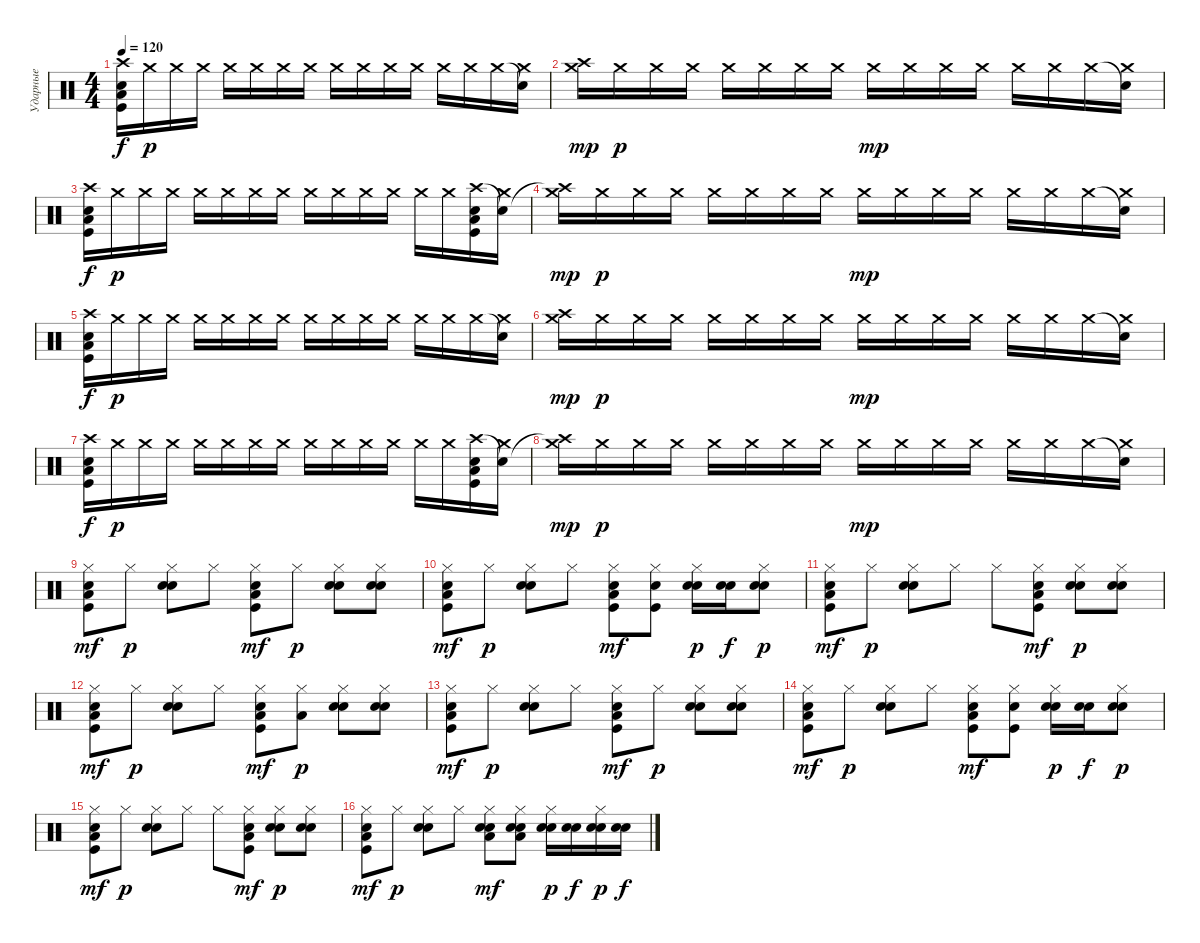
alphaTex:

\track ("Ударные" "Ударные") {instrument percussion}
\staff {score}
\articulation defaults
\ts (4 4)
\tempo 120
\clef neutral
\ks c
("Crash high (hit)" "Snare (hit) 2" "Kick (hit)" "Low Floor Tom (hit)").16{dy f} "Crash medium (hit)".16{dy p} "Crash medium (hit)".16 "Crash medium (hit)".16 "Crash medium (hit)".16 "Crash medium (hit)".16 "Crash medium (hit)".16 "Crash medium (hit)".16 "Crash medium (hit)".16 "Crash medium (hit)".16 "Crash medium (hit)".16 "Crash medium (hit)".16 "Crash medium (hit)".16 "Crash medium (hit)".16 "Crash medium (hit)".16 ("Snare (hit)"{t} "Crash medium (hit)").16 |
("Crash high (hit)" "Crash medium (hit)").16{dy mp} "Crash medium (hit)".16{dy p} "Crash medium (hit)".16 "Crash medium (hit)".16 "Crash medium (hit)".16 "Crash medium (hit)".16 "Crash medium (hit)".16 "Crash medium (hit)".16 "Crash medium (hit)".16{dy mp} "Crash medium (hit)".16 "Crash medium (hit)".16 "Crash medium (hit)".16 "Crash medium (hit)".16 "Crash medium (hit)".16 "Crash medium (hit)".16 ("Snare (hit)"{t} "Crash medium (hit)").16 |
("Crash high (hit)" "Snare (hit) 2" "Kick (hit)" "Low Floor Tom (hit)").16{dy f} "Crash medium (hit)".16{dy p} "Crash medium (hit)".16 "Crash medium (hit)".16 "Crash medium (hit)".16 "Crash medium (hit)".16 "Crash medium (hit)".16 "Crash medium (hit)".16 "Crash medium (hit)".16 "Crash medium (hit)".16 "Crash medium (hit)".16 "Crash medium (hit)".16 "Crash medium (hit)".16 "Crash medium (hit)".16 ("Crash high (hit)" "Snare (hit) 2" "Kick (hit)" "Low Floor Tom (hit)").16 ("Snare (hit)"{t} "Crash medium (hit)").16 |
("Crash high (hit)"{t} "Crash medium (hit)").16{dy mp} "Crash medium (hit)".16{dy p} "Crash medium (hit)".16 "Crash medium (hit)".16 "Crash medium (hit)".16 "Crash medium (hit)".16 "Crash medium (hit)".16 "Crash medium (hit)".16 "Crash medium (hit)".16{dy mp} "Crash medium (hit)".16 "Crash medium (hit)".16 "Crash medium (hit)".16 "Crash medium (hit)".16 "Crash medium (hit)".16 "Crash medium (hit)".16 ("Snare (hit)"{t} "Crash medium (hit)").16 |
("Crash high (hit)" "Snare (hit) 2" "Kick (hit)" "Low Floor Tom (hit)").16{dy f} "Crash medium (hit)".16{dy p} "Crash medium (hit)".16 "Crash medium (hit)".16 "Crash medium (hit)".16 "Crash medium (hit)".16 "Crash medium (hit)".16 "Crash medium (hit)".16 "Crash medium (hit)".16 "Crash medium (hit)".16 "Crash medium (hit)".16 "Crash medium (hit)".16 "Crash medium (hit)".16 "Crash medium (hit)".16 "Crash medium (hit)".16 ("Snare (hit)"{t} "Crash medium (hit)").16 |
("Crash high (hit)" "Crash medium (hit)").16{dy mp} "Crash medium (hit)".16{dy p} "Crash medium (hit)".16 "Crash medium (hit)".16 "Crash medium (hit)".16 "Crash medium (hit)".16 "Crash medium (hit)".16 "Crash medium (hit)".16 "Crash medium (hit)".16{dy mp} "Crash medium (hit)".16 "Crash medium (hit)".16 "Crash medium (hit)".16 "Crash medium (hit)".16 "Crash medium (hit)".16 "Crash medium (hit)".16 ("Snare (hit)"{t} "Crash medium (hit)").16 |
("Crash high (hit)" "Snare (hit) 2" "Kick (hit)" "Low Floor Tom (hit)").16{dy f} "Crash medium (hit)".16{dy p} "Crash medium (hit)".16 "Crash medium (hit)".16 "Crash medium (hit)".16 "Crash medium (hit)".16 "Crash medium (hit)".16 "Crash medium (hit)".16 "Crash medium (hit)".16 "Crash medium (hit)".16 "Crash medium (hit)".16 "Crash medium (hit)".16 "Crash medium (hit)".16 "Crash medium (hit)".16 ("Crash high (hit)" "Snare (hit) 2" "Kick (hit)" "Low Floor Tom (hit)").16 ("Snare (hit)"{t} "Crash medium (hit)").16 |
("Crash high (hit)"{t} "Crash medium (hit)").16{dy mp} "Crash medium (hit)".16{dy p} "Crash medium (hit)".16 "Crash medium (hit)".16 "Crash medium (hit)".16 "Crash medium (hit)".16 "Crash medium (hit)".16 "Crash medium (hit)".16 "Crash medium (hit)".16{dy mp} "Crash medium (hit)".16 "Crash medium (hit)".16 "Crash medium (hit)".16 "Crash medium (hit)".16 "Crash medium (hit)".16 "Crash medium (hit)".16 ("Snare (hit)"{t} "Crash medium (hit)").16 |
("Hi-Hat (closed)" "Snare (hit) 2" "Kick (hit)" "Low Floor Tom (hit)").8{dy mf} "Hi-Hat (closed)".8{dy p} ("Hi-Hat (closed)" "Electric Snare (hit)" "Electric Snare (hit)").8 "Hi-Hat (closed)".8 ("Hi-Hat (closed)" "Snare (hit) 2" "Kick (hit)" "Low Floor Tom (hit)").8{dy mf} "Hi-Hat (closed)".8{dy p} ("Hi-Hat (closed)" "Electric Snare (hit)" "Electric Snare (hit)").8 ("Hi-Hat (closed)" "Electric Snare (hit)" "Electric Snare (hit)").8 |
("Hi-Hat (closed)" "Snare (hit) 2" "Kick (hit)" "Low Floor Tom (hit)").8{dy mf} "Hi-Hat (closed)".8{dy p} ("Hi-Hat (closed)" "Electric Snare (hit)" "Electric Snare (hit)").8 "Hi-Hat (closed)".8 ("Hi-Hat (closed)" "Snare (hit) 2" "Kick (hit)" "Low Floor Tom (hit)").8{dy mf} ("Hi-Hat (closed)" "Snare (hit) 2" "Kick (hit)").8 ("Hi-Hat (closed)" "Electric Snare (hit)" "Electric Snare (hit)").16{dy p} ("Electric Snare (hit)" "Electric Snare (hit)").16{dy f} ("Hi-Hat (closed)" "Electric Snare (hit)" "Electric Snare (hit)").8{dy p} |
("Hi-Hat (closed)" "Snare (hit) 2" "Kick (hit)" "Low Floor Tom (hit)").8{dy mf} "Hi-Hat (closed)".8{dy p} ("Hi-Hat (closed)" "Electric Snare (hit)" "Electric Snare (hit)").8 "Hi-Hat (closed)".8 "Hi-Hat (closed)".8 ("Hi-Hat (closed)" "Snare (hit) 2" "Kick (hit)" "Low Floor Tom (hit)").8{dy mf} ("Hi-Hat (closed)" "Electric Snare (hit)" "Electric Snare (hit)").8{dy p} ("Hi-Hat (closed)" "Electric Snare (hit)" "Electric Snare (hit)").8 |
("Hi-Hat (closed)" "Snare (hit) 2" "Kick (hit)" "Low Floor Tom (hit)").8{dy mf} "Hi-Hat (closed)".8{dy p} ("Hi-Hat (closed)" "Electric Snare (hit)" "Electric Snare (hit)").8 "Hi-Hat (closed)".8 ("Hi-Hat (closed)" "Snare (hit) 2" "Kick (hit)" "Low Floor Tom (hit)").8{dy mf} ("Hi-Hat (closed)" "Low Floor Tom (hit)").8{dy p} ("Hi-Hat (closed)" "Electric Snare (hit)" "Electric Snare (hit)").8 ("Hi-Hat (closed)" "Electric Snare (hit)" "Electric Snare (hit)").8 |
("Hi-Hat (closed)" "Snare (hit) 2" "Kick (hit)" "Low Floor Tom (hit)").8{dy mf} "Hi-Hat (closed)".8{dy p} ("Hi-Hat (closed)" "Electric Snare (hit)" "Electric Snare (hit)").8 "Hi-Hat (closed)".8 ("Hi-Hat (closed)" "Snare (hit) 2" "Kick (hit)" "Low Floor Tom (hit)").8{dy mf} "Hi-Hat (closed)".8{dy p} ("Hi-Hat (closed)" "Electric Snare (hit)" "Electric Snare (hit)").8 ("Hi-Hat (closed)" "Electric Snare (hit)" "Electric Snare (hit)").8 |
("Hi-Hat (closed)" "Snare (hit) 2" "Kick (hit)" "Low Floor Tom (hit)").8{dy mf} "Hi-Hat (closed)".8{dy p} ("Hi-Hat (closed)" "Electric Snare (hit)" "Electric Snare (hit)").8 "Hi-Hat (closed)".8 ("Hi-Hat (closed)" "Snare (hit) 2" "Kick (hit)" "Low Floor Tom (hit)").8{dy mf} ("Hi-Hat (closed)" "Snare (hit) 2" "Kick (hit)").8 ("Hi-Hat (closed)" "Electric Snare (hit)" "Electric Snare (hit)").16{dy p} ("Electric Snare (hit)" "Electric Snare (hit)").16{dy f} ("Hi-Hat (closed)" "Electric Snare (hit)" "Electric Snare (hit)").8{dy p} |
("Hi-Hat (closed)" "Snare (hit) 2" "Kick (hit)" "Low Floor Tom (hit)").8{dy mf} "Hi-Hat (closed)".8{dy p} ("Hi-Hat (closed)" "Electric Snare (hit)" "Electric Snare (hit)").8 "Hi-Hat (closed)".8 "Hi-Hat (closed)".8 ("Hi-Hat (closed)" "Snare (hit) 2" "Kick (hit)" "Low Floor Tom (hit)").8{dy mf} ("Hi-Hat (closed)" "Electric Snare (hit)" "Electric Snare (hit)").8{dy p} ("Hi-Hat (closed)" "Electric Snare (hit)" "Electric Snare (hit)").8 |
("Hi-Hat (closed)" "Snare (hit) 2" "Kick (hit)" "Low Floor Tom (hit)").8{dy mf} "Hi-Hat (closed)".8{dy p} ("Hi-Hat (closed)" "Electric Snare (hit)" "Electric Snare (hit)").8 "Hi-Hat (closed)".8 ("Hi-Hat (closed)" "Snare (hit) 2" "Electric Snare (hit)" "Low Floor Tom (hit)").8{dy mf} ("Hi-Hat (closed)" "Snare (hit) 2" "Electric Snare (hit)" "Low Floor Tom (hit)").8 ("Hi-Hat (closed)" "Electric Snare (hit)" "Electric Snare (hit)").16{dy p} ("Electric Snare (hit)" "Electric Snare (hit)").16{dy f} ("Hi-Hat (closed)" "Electric Snare (hit)" "Electric Snare (hit)").16{dy p} ("Electric Snare (hit)" "Electric Snare (hit)").16{dy f}
